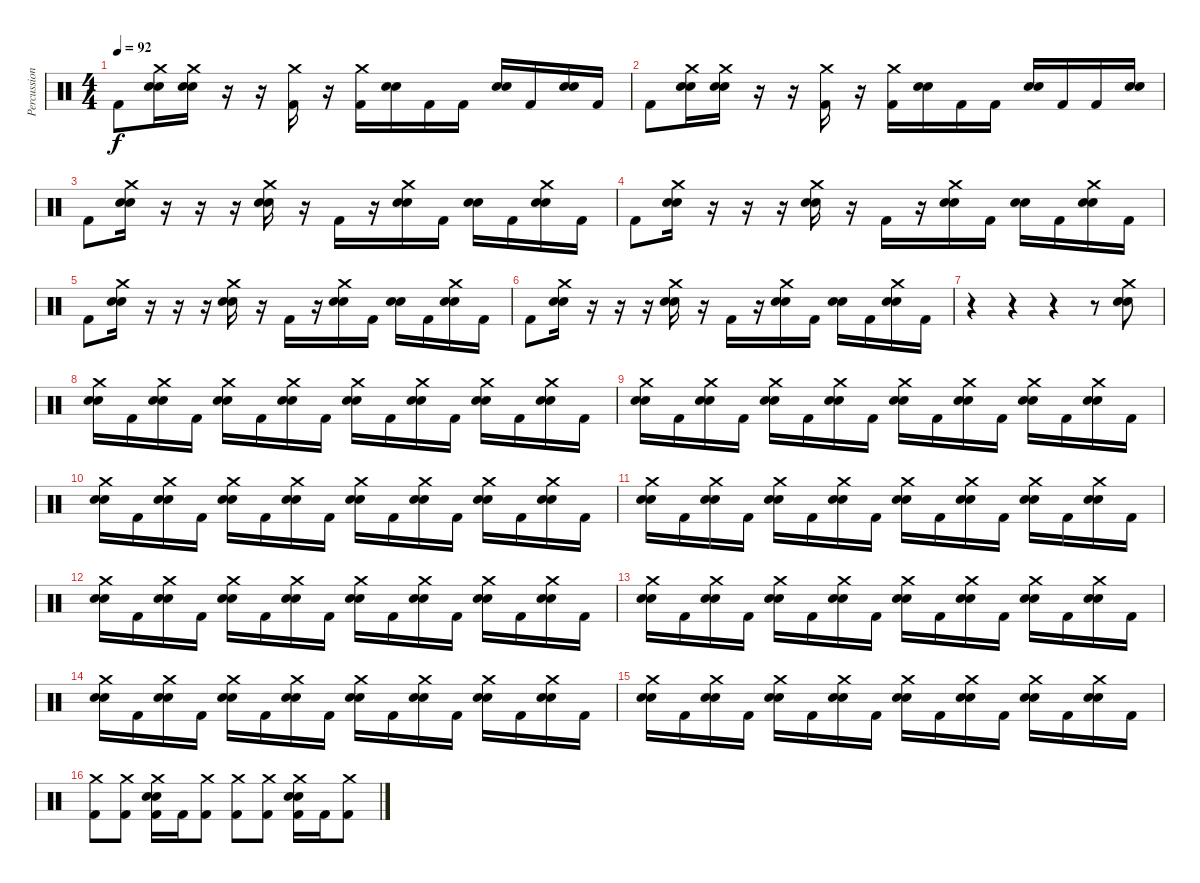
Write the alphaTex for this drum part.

\track ("Percussion" "Percussion") {instrument percussion}
\staff {score}
\articulation defaults
\ts (4 4)
\tempo 92
\clef neutral
\ks c "Kick (hit) 2".8{dy f}
("Crash medium (hit)" "Electric Snare (hit)" "Electric Snare (hit)").16 ("Crash medium (hit)" "Electric Snare (hit)" "Electric Snare (hit)").16 r.16 r.16 ("Crash medium (hit)" "Kick (hit) 2").16 r.16 ("Crash medium (hit)" "Kick (hit) 2").16 ("Electric Snare (hit)" "Electric Snare (hit)").16 "Kick (hit) 2".16 "Kick (hit) 2".16 ("Electric Snare (hit)" "Electric Snare (hit)").16 "Kick (hit) 2".16 ("Electric Snare (hit)" "Electric Snare (hit)").16 "Kick (hit) 2".16 |
"Kick (hit) 2".8 ("Crash medium (hit)" "Electric Snare (hit)" "Electric Snare (hit)").16 ("Crash medium (hit)" "Electric Snare (hit)" "Electric Snare (hit)").16 r.16 r.16 ("Crash medium (hit)" "Kick (hit) 2").16 r.16 ("Crash medium (hit)" "Kick (hit) 2").16 ("Electric Snare (hit)" "Electric Snare (hit)").16 "Kick (hit) 2".16 "Kick (hit) 2".16 ("Electric Snare (hit)" "Electric Snare (hit)").16 "Kick (hit) 2".16 "Kick (hit) 2".16 ("Electric Snare (hit)" "Electric Snare (hit)").16 |
"Kick (hit) 2".8 ("Crash medium (hit)" "Electric Snare (hit)" "Electric Snare (hit)").16 r.16 r.16 r.16 ("Crash medium (hit)" "Electric Snare (hit)" "Electric Snare (hit)").16 r.16 "Kick (hit) 2".16 r.16 ("Crash medium (hit)" "Electric Snare (hit)" "Electric Snare (hit)").16 "Kick (hit) 2".16 ("Electric Snare (hit)" "Electric Snare (hit)").16 "Kick (hit) 2".16 ("Crash medium (hit)" "Electric Snare (hit)" "Electric Snare (hit)").16 "Kick (hit) 2".16 |
"Kick (hit) 2".8 ("Crash medium (hit)" "Electric Snare (hit)" "Electric Snare (hit)").16 r.16 r.16 r.16 ("Crash medium (hit)" "Electric Snare (hit)" "Electric Snare (hit)").16 r.16 "Kick (hit) 2".16 r.16 ("Crash medium (hit)" "Electric Snare (hit)" "Electric Snare (hit)").16 "Kick (hit) 2".16 ("Electric Snare (hit)" "Electric Snare (hit)").16 "Kick (hit) 2".16 ("Crash medium (hit)" "Electric Snare (hit)" "Electric Snare (hit)").16 "Kick (hit) 2".16 |
"Kick (hit) 2".8 ("Crash medium (hit)" "Electric Snare (hit)" "Electric Snare (hit)").16 r.16 r.16 r.16 ("Crash medium (hit)" "Electric Snare (hit)" "Electric Snare (hit)").16 r.16 "Kick (hit) 2".16 r.16 ("Crash medium (hit)" "Electric Snare (hit)" "Electric Snare (hit)").16 "Kick (hit) 2".16 ("Electric Snare (hit)" "Electric Snare (hit)").16 "Kick (hit) 2".16 ("Crash medium (hit)" "Electric Snare (hit)" "Electric Snare (hit)").16 "Kick (hit) 2".16 |
"Kick (hit) 2".8 ("Crash medium (hit)" "Electric Snare (hit)" "Electric Snare (hit)").16 r.16 r.16 r.16 ("Crash medium (hit)" "Electric Snare (hit)" "Electric Snare (hit)").16 r.16 "Kick (hit) 2".16 r.16 ("Crash medium (hit)" "Electric Snare (hit)" "Electric Snare (hit)").16 "Kick (hit) 2".16 ("Electric Snare (hit)" "Electric Snare (hit)").16 "Kick (hit) 2".16 ("Crash medium (hit)" "Electric Snare (hit)" "Electric Snare (hit)").16 "Kick (hit) 2".16 |
r.4 r.4 r.4 r.8 ("Crash medium (hit)" "Electric Snare (hit)" "Electric Snare (hit)").8 |
("Crash medium (hit)" "Electric Snare (hit)" "Electric Snare (hit)").16 "Kick (hit) 2".16 ("Crash medium (hit)" "Electric Snare (hit)" "Electric Snare (hit)").16 "Kick (hit) 2".16 ("Crash medium (hit)" "Electric Snare (hit)" "Electric Snare (hit)").16 "Kick (hit) 2".16 ("Crash medium (hit)" "Electric Snare (hit)" "Electric Snare (hit)").16 "Kick (hit) 2".16 ("Crash medium (hit)" "Electric Snare (hit)" "Electric Snare (hit)").16 "Kick (hit) 2".16 ("Crash medium (hit)" "Electric Snare (hit)" "Electric Snare (hit)").16 "Kick (hit) 2".16 ("Crash medium (hit)" "Electric Snare (hit)" "Electric Snare (hit)").16 "Kick (hit) 2".16 ("Crash medium (hit)" "Electric Snare (hit)" "Electric Snare (hit)").16 "Kick (hit) 2".16 |
("Crash medium (hit)" "Electric Snare (hit)" "Electric Snare (hit)").16 "Kick (hit) 2".16 ("Crash medium (hit)" "Electric Snare (hit)" "Electric Snare (hit)").16 "Kick (hit) 2".16 ("Crash medium (hit)" "Electric Snare (hit)" "Electric Snare (hit)").16 "Kick (hit) 2".16 ("Crash medium (hit)" "Electric Snare (hit)" "Electric Snare (hit)").16 "Kick (hit) 2".16 ("Crash medium (hit)" "Electric Snare (hit)" "Electric Snare (hit)").16 "Kick (hit) 2".16 ("Crash medium (hit)" "Electric Snare (hit)" "Electric Snare (hit)").16 "Kick (hit) 2".16 ("Crash medium (hit)" "Electric Snare (hit)" "Electric Snare (hit)").16 "Kick (hit) 2".16 ("Crash medium (hit)" "Electric Snare (hit)" "Electric Snare (hit)").16 "Kick (hit) 2".16 |
("Crash medium (hit)" "Electric Snare (hit)" "Electric Snare (hit)").16 "Kick (hit) 2".16 ("Crash medium (hit)" "Electric Snare (hit)" "Electric Snare (hit)").16 "Kick (hit) 2".16 ("Crash medium (hit)" "Electric Snare (hit)" "Electric Snare (hit)").16 "Kick (hit) 2".16 ("Crash medium (hit)" "Electric Snare (hit)" "Electric Snare (hit)").16 "Kick (hit) 2".16 ("Crash medium (hit)" "Electric Snare (hit)" "Electric Snare (hit)").16 "Kick (hit) 2".16 ("Crash medium (hit)" "Electric Snare (hit)" "Electric Snare (hit)").16 "Kick (hit) 2".16 ("Crash medium (hit)" "Electric Snare (hit)" "Electric Snare (hit)").16 "Kick (hit) 2".16 ("Crash medium (hit)" "Electric Snare (hit)" "Electric Snare (hit)").16 "Kick (hit) 2".16 |
("Crash medium (hit)" "Electric Snare (hit)" "Electric Snare (hit)").16 "Kick (hit) 2".16 ("Crash medium (hit)" "Electric Snare (hit)" "Electric Snare (hit)").16 "Kick (hit) 2".16 ("Crash medium (hit)" "Electric Snare (hit)" "Electric Snare (hit)").16 "Kick (hit) 2".16 ("Crash medium (hit)" "Electric Snare (hit)" "Electric Snare (hit)").16 "Kick (hit) 2".16 ("Crash medium (hit)" "Electric Snare (hit)" "Electric Snare (hit)").16 "Kick (hit) 2".16 ("Crash medium (hit)" "Electric Snare (hit)" "Electric Snare (hit)").16 "Kick (hit) 2".16 ("Crash medium (hit)" "Electric Snare (hit)" "Electric Snare (hit)").16 "Kick (hit) 2".16 ("Crash medium (hit)" "Electric Snare (hit)" "Electric Snare (hit)").16 "Kick (hit) 2".16 |
("Crash medium (hit)" "Electric Snare (hit)" "Electric Snare (hit)").16 "Kick (hit) 2".16 ("Crash medium (hit)" "Electric Snare (hit)" "Electric Snare (hit)").16 "Kick (hit) 2".16 ("Crash medium (hit)" "Electric Snare (hit)" "Electric Snare (hit)").16 "Kick (hit) 2".16 ("Crash medium (hit)" "Electric Snare (hit)" "Electric Snare (hit)").16 "Kick (hit) 2".16 ("Crash medium (hit)" "Electric Snare (hit)" "Electric Snare (hit)").16 "Kick (hit) 2".16 ("Crash medium (hit)" "Electric Snare (hit)" "Electric Snare (hit)").16 "Kick (hit) 2".16 ("Crash medium (hit)" "Electric Snare (hit)" "Electric Snare (hit)").16 "Kick (hit) 2".16 ("Crash medium (hit)" "Electric Snare (hit)" "Electric Snare (hit)").16 "Kick (hit) 2".16 |
("Crash medium (hit)" "Electric Snare (hit)" "Electric Snare (hit)").16 "Kick (hit) 2".16 ("Crash medium (hit)" "Electric Snare (hit)" "Electric Snare (hit)").16 "Kick (hit) 2".16 ("Crash medium (hit)" "Electric Snare (hit)" "Electric Snare (hit)").16 "Kick (hit) 2".16 ("Crash medium (hit)" "Electric Snare (hit)" "Electric Snare (hit)").16 "Kick (hit) 2".16 ("Crash medium (hit)" "Electric Snare (hit)" "Electric Snare (hit)").16 "Kick (hit) 2".16 ("Crash medium (hit)" "Electric Snare (hit)" "Electric Snare (hit)").16 "Kick (hit) 2".16 ("Crash medium (hit)" "Electric Snare (hit)" "Electric Snare (hit)").16 "Kick (hit) 2".16 ("Crash medium (hit)" "Electric Snare (hit)" "Electric Snare (hit)").16 "Kick (hit) 2".16 |
("Crash medium (hit)" "Electric Snare (hit)" "Electric Snare (hit)").16 "Kick (hit) 2".16 ("Crash medium (hit)" "Electric Snare (hit)" "Electric Snare (hit)").16 "Kick (hit) 2".16 ("Crash medium (hit)" "Electric Snare (hit)" "Electric Snare (hit)").16 "Kick (hit) 2".16 ("Crash medium (hit)" "Electric Snare (hit)" "Electric Snare (hit)").16 "Kick (hit) 2".16 ("Crash medium (hit)" "Electric Snare (hit)" "Electric Snare (hit)").16 "Kick (hit) 2".16 ("Crash medium (hit)" "Electric Snare (hit)" "Electric Snare (hit)").16 "Kick (hit) 2".16 ("Crash medium (hit)" "Electric Snare (hit)" "Electric Snare (hit)").16 "Kick (hit) 2".16 ("Crash medium (hit)" "Electric Snare (hit)" "Electric Snare (hit)").16 "Kick (hit) 2".16 |
("Crash medium (hit)" "Electric Snare (hit)" "Electric Snare (hit)").16 "Kick (hit) 2".16 ("Crash medium (hit)" "Electric Snare (hit)" "Electric Snare (hit)").16 "Kick (hit) 2".16 ("Crash medium (hit)" "Electric Snare (hit)" "Electric Snare (hit)").16 "Kick (hit) 2".16 ("Crash medium (hit)" "Electric Snare (hit)" "Electric Snare (hit)").16 "Kick (hit) 2".16 ("Crash medium (hit)" "Electric Snare (hit)" "Electric Snare (hit)").16 "Kick (hit) 2".16 ("Crash medium (hit)" "Electric Snare (hit)" "Electric Snare (hit)").16 "Kick (hit) 2".16 ("Crash medium (hit)" "Electric Snare (hit)" "Electric Snare (hit)").16 "Kick (hit) 2".16 ("Crash medium (hit)" "Electric Snare (hit)" "Electric Snare (hit)").16 "Kick (hit) 2".16 |
("Crash medium (hit)" "Kick (hit) 2").8 ("Crash medium (hit)" "Kick (hit) 2").8 ("Crash medium (hit)" "Electric Snare (hit)" "Electric Snare (hit)" "Kick (hit) 2").16 "Kick (hit) 2".16 ("Crash medium (hit)" "Kick (hit) 2").8 ("Crash medium (hit)" "Kick (hit) 2").8 ("Crash medium (hit)" "Kick (hit) 2").8 ("Crash medium (hit)" "Electric Snare (hit)" "Electric Snare (hit)" "Kick (hit) 2").16 "Kick (hit) 2".16 ("Crash medium (hit)" "Kick (hit) 2").8
